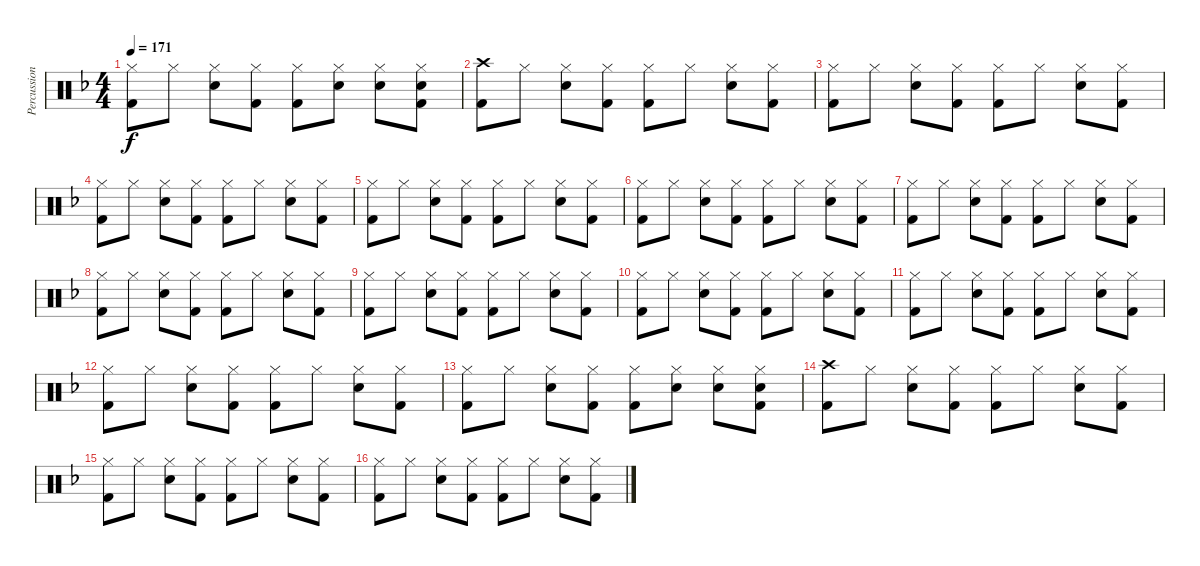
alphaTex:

\track ("Percussion" "Percussion") {instrument percussion}
\staff {score}
\articulation defaults
\ts (4 4)
\tempo 171
\clef neutral
\ks f
("Hi-Hat (closed)" "Kick (hit) 2").8{dy f} "Hi-Hat (closed)".8 ("Hi-Hat (closed)" "Snare (hit) 2").8 ("Hi-Hat (closed)" "Kick (hit) 2").8 ("Hi-Hat (closed)" "Kick (hit) 2").8 ("Hi-Hat (closed)" "Snare (hit) 2").8 ("Hi-Hat (closed)" "Snare (hit) 2").8 ("Hi-Hat (closed)" "Snare (hit) 2" "Kick (hit) 2").8 |
("Crash high (hit)" "Kick (hit) 2").8 "Hi-Hat (closed)".8 ("Hi-Hat (closed)" "Snare (hit) 2").8 ("Hi-Hat (closed)" "Kick (hit) 2").8 ("Hi-Hat (closed)" "Kick (hit) 2").8 "Hi-Hat (closed)".8 ("Hi-Hat (closed)" "Snare (hit) 2").8 ("Hi-Hat (closed)" "Kick (hit) 2").8 |
("Hi-Hat (closed)" "Kick (hit) 2").8 "Hi-Hat (closed)".8 ("Hi-Hat (closed)" "Snare (hit) 2").8 ("Hi-Hat (closed)" "Kick (hit) 2").8 ("Hi-Hat (closed)" "Kick (hit) 2").8 "Hi-Hat (closed)".8 ("Hi-Hat (closed)" "Snare (hit) 2").8 ("Hi-Hat (closed)" "Kick (hit) 2").8 |
("Hi-Hat (closed)" "Kick (hit) 2").8 "Hi-Hat (closed)".8 ("Hi-Hat (closed)" "Snare (hit) 2").8 ("Hi-Hat (closed)" "Kick (hit) 2").8 ("Hi-Hat (closed)" "Kick (hit) 2").8 "Hi-Hat (closed)".8 ("Hi-Hat (closed)" "Snare (hit) 2").8 ("Hi-Hat (closed)" "Kick (hit) 2").8 |
("Hi-Hat (closed)" "Kick (hit) 2").8 "Hi-Hat (closed)".8 ("Hi-Hat (closed)" "Snare (hit) 2").8 ("Hi-Hat (closed)" "Kick (hit) 2").8 ("Hi-Hat (closed)" "Kick (hit) 2").8 "Hi-Hat (closed)".8 ("Hi-Hat (closed)" "Snare (hit) 2").8 ("Hi-Hat (closed)" "Kick (hit) 2").8 |
("Hi-Hat (closed)" "Kick (hit) 2").8 "Hi-Hat (closed)".8 ("Hi-Hat (closed)" "Snare (hit) 2").8 ("Hi-Hat (closed)" "Kick (hit) 2").8 ("Hi-Hat (closed)" "Kick (hit) 2").8 "Hi-Hat (closed)".8 ("Hi-Hat (closed)" "Snare (hit) 2").8 ("Hi-Hat (closed)" "Kick (hit) 2").8 |
("Hi-Hat (closed)" "Kick (hit) 2").8 "Hi-Hat (closed)".8 ("Hi-Hat (closed)" "Snare (hit) 2").8 ("Hi-Hat (closed)" "Kick (hit) 2").8 ("Hi-Hat (closed)" "Kick (hit) 2").8 "Hi-Hat (closed)".8 ("Hi-Hat (closed)" "Snare (hit) 2").8 ("Hi-Hat (closed)" "Kick (hit) 2").8 |
("Hi-Hat (closed)" "Kick (hit) 2").8 "Hi-Hat (closed)".8 ("Hi-Hat (closed)" "Snare (hit) 2").8 ("Hi-Hat (closed)" "Kick (hit) 2").8 ("Hi-Hat (closed)" "Kick (hit) 2").8 "Hi-Hat (closed)".8 ("Hi-Hat (closed)" "Snare (hit) 2").8 ("Hi-Hat (closed)" "Kick (hit) 2").8 |
("Hi-Hat (closed)" "Kick (hit) 2").8 "Hi-Hat (closed)".8 ("Hi-Hat (closed)" "Snare (hit) 2").8 ("Hi-Hat (closed)" "Kick (hit) 2").8 ("Hi-Hat (closed)" "Kick (hit) 2").8 "Hi-Hat (closed)".8 ("Hi-Hat (closed)" "Snare (hit) 2").8 ("Hi-Hat (closed)" "Kick (hit) 2").8 |
("Hi-Hat (closed)" "Kick (hit) 2").8 "Hi-Hat (closed)".8 ("Hi-Hat (closed)" "Snare (hit) 2").8 ("Hi-Hat (closed)" "Kick (hit) 2").8 ("Hi-Hat (closed)" "Kick (hit) 2").8 "Hi-Hat (closed)".8 ("Hi-Hat (closed)" "Snare (hit) 2").8 ("Hi-Hat (closed)" "Kick (hit) 2").8 |
("Hi-Hat (closed)" "Kick (hit) 2").8 "Hi-Hat (closed)".8 ("Hi-Hat (closed)" "Snare (hit) 2").8 ("Hi-Hat (closed)" "Kick (hit) 2").8 ("Hi-Hat (closed)" "Kick (hit) 2").8 "Hi-Hat (closed)".8 ("Hi-Hat (closed)" "Snare (hit) 2").8 ("Hi-Hat (closed)" "Kick (hit) 2").8 |
("Hi-Hat (closed)" "Kick (hit) 2").8 "Hi-Hat (closed)".8 ("Hi-Hat (closed)" "Snare (hit) 2").8 ("Hi-Hat (closed)" "Kick (hit) 2").8 ("Hi-Hat (closed)" "Kick (hit) 2").8 "Hi-Hat (closed)".8 ("Hi-Hat (closed)" "Snare (hit) 2").8 ("Hi-Hat (closed)" "Kick (hit) 2").8 |
("Hi-Hat (closed)" "Kick (hit) 2").8 "Hi-Hat (closed)".8 ("Hi-Hat (closed)" "Snare (hit) 2").8 ("Hi-Hat (closed)" "Kick (hit) 2").8 ("Hi-Hat (closed)" "Kick (hit) 2").8 ("Hi-Hat (closed)" "Snare (hit) 2").8 ("Hi-Hat (closed)" "Snare (hit) 2").8 ("Hi-Hat (closed)" "Snare (hit) 2" "Kick (hit) 2").8 |
("Crash high (hit)" "Kick (hit) 2").8 "Hi-Hat (closed)".8 ("Hi-Hat (closed)" "Snare (hit) 2").8 ("Hi-Hat (closed)" "Kick (hit) 2").8 ("Hi-Hat (closed)" "Kick (hit) 2").8 "Hi-Hat (closed)".8 ("Hi-Hat (closed)" "Snare (hit) 2").8 ("Hi-Hat (closed)" "Kick (hit) 2").8 |
("Hi-Hat (closed)" "Kick (hit) 2").8 "Hi-Hat (closed)".8 ("Hi-Hat (closed)" "Snare (hit) 2").8 ("Hi-Hat (closed)" "Kick (hit) 2").8 ("Hi-Hat (closed)" "Kick (hit) 2").8 "Hi-Hat (closed)".8 ("Hi-Hat (closed)" "Snare (hit) 2").8 ("Hi-Hat (closed)" "Kick (hit) 2").8 |
("Hi-Hat (closed)" "Kick (hit) 2").8 "Hi-Hat (closed)".8 ("Hi-Hat (closed)" "Snare (hit) 2").8 ("Hi-Hat (closed)" "Kick (hit) 2").8 ("Hi-Hat (closed)" "Kick (hit) 2").8 "Hi-Hat (closed)".8 ("Hi-Hat (closed)" "Snare (hit) 2").8 ("Hi-Hat (closed)" "Kick (hit) 2").8
